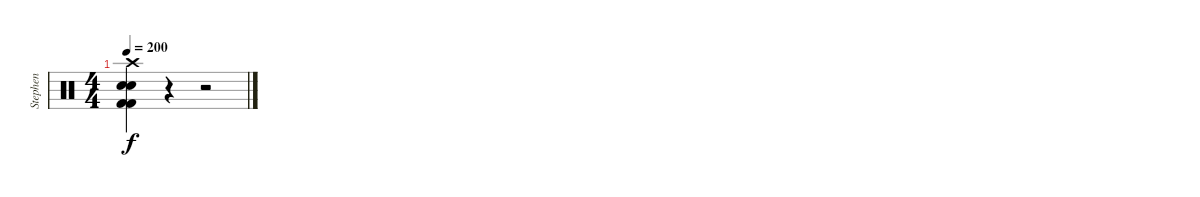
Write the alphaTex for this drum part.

\track ("Stephen" "Stephen") {instrument percussion}
\staff {score}
\articulation defaults
\ts (4 4)
\tempo 200
\clef neutral
\ks c
("Crash high (hit)" "Electric Snare (hit)" "Electric Snare (hit)" "Kick (hit) 2" "Kick (hit) 2").4{dy f} r.4 r.2
